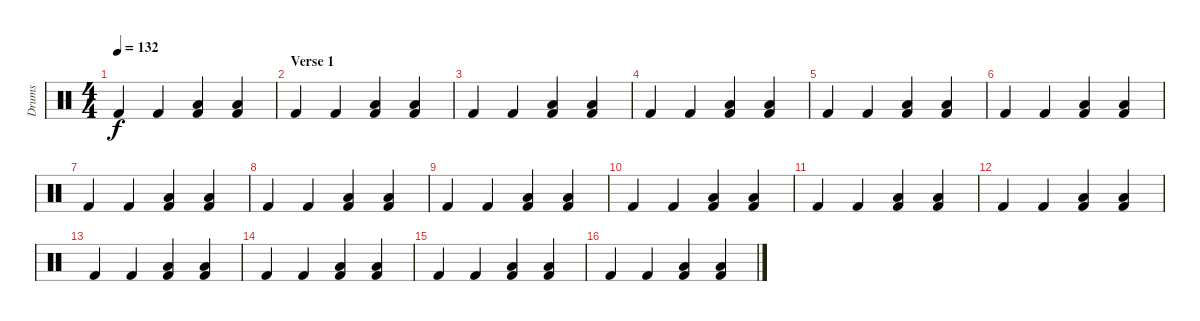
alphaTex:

\track ("Drums" "Drums") {instrument percussion}
\staff {score}
\articulation defaults
\ts (4 4)
\tempo 132
\clef neutral
\ks c "Kick (hit) 2".4{dy f} "Kick (hit) 2".4
("Low Tom (hit)" "Kick (hit) 2").4 ("Low Floor Tom (hit)" "Kick (hit) 2").4 |
\section ("" "Verse 1")
"Kick (hit) 2".4 "Kick (hit) 2".4 ("Low Tom (hit)" "Kick (hit) 2").4 ("Low Floor Tom (hit)" "Kick (hit) 2").4 |
"Kick (hit) 2".4 "Kick (hit) 2".4 ("Low Tom (hit)" "Kick (hit) 2").4 ("Low Floor Tom (hit)" "Kick (hit) 2").4 |
"Kick (hit) 2".4 "Kick (hit) 2".4 ("Low Tom (hit)" "Kick (hit) 2").4 ("Low Floor Tom (hit)" "Kick (hit) 2").4 |
"Kick (hit) 2".4 "Kick (hit) 2".4 ("Low Tom (hit)" "Kick (hit) 2").4 ("Low Floor Tom (hit)" "Kick (hit) 2").4 |
"Kick (hit) 2".4 "Kick (hit) 2".4 ("Low Tom (hit)" "Kick (hit) 2").4 ("Low Floor Tom (hit)" "Kick (hit) 2").4 |
"Kick (hit) 2".4 "Kick (hit) 2".4 ("Low Tom (hit)" "Kick (hit) 2").4 ("Low Floor Tom (hit)" "Kick (hit) 2").4 |
"Kick (hit) 2".4 "Kick (hit) 2".4 ("Low Tom (hit)" "Kick (hit) 2").4 ("Low Floor Tom (hit)" "Kick (hit) 2").4 |
"Kick (hit) 2".4 "Kick (hit) 2".4 ("Low Tom (hit)" "Kick (hit) 2").4 ("Low Floor Tom (hit)" "Kick (hit) 2").4 |
"Kick (hit) 2".4 "Kick (hit) 2".4 ("Low Tom (hit)" "Kick (hit) 2").4 ("Low Floor Tom (hit)" "Kick (hit) 2").4 |
"Kick (hit) 2".4 "Kick (hit) 2".4 ("Low Tom (hit)" "Kick (hit) 2").4 ("Low Floor Tom (hit)" "Kick (hit) 2").4 |
"Kick (hit) 2".4 "Kick (hit) 2".4 ("Low Tom (hit)" "Kick (hit) 2").4 ("Low Floor Tom (hit)" "Kick (hit) 2").4 |
"Kick (hit) 2".4 "Kick (hit) 2".4 ("Low Tom (hit)" "Kick (hit) 2").4 ("Low Floor Tom (hit)" "Kick (hit) 2").4 |
"Kick (hit) 2".4 "Kick (hit) 2".4 ("Low Tom (hit)" "Kick (hit) 2").4 ("Low Floor Tom (hit)" "Kick (hit) 2").4 |
"Kick (hit) 2".4 "Kick (hit) 2".4 ("Low Tom (hit)" "Kick (hit) 2").4 ("Low Floor Tom (hit)" "Kick (hit) 2").4 |
"Kick (hit) 2".4 "Kick (hit) 2".4 ("Low Tom (hit)" "Kick (hit) 2").4 ("Low Floor Tom (hit)" "Kick (hit) 2").4
